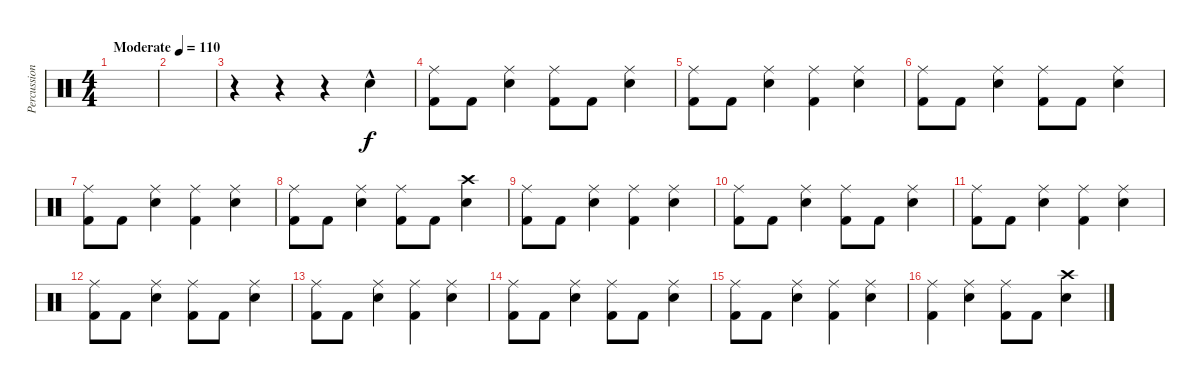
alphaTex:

\track ("Percussion" "Percussion") {instrument percussion}
\staff {score}
\articulation defaults
\ts (4 4)
\tempo (110 "Moderate")
\clef neutral
\ks c
|
|
r.4 r.4 r.4 "Snare (hit) 2"{hac}.4 |
("Ride (middle)" "Kick (hit) 2").8{dy f} "Kick (hit) 2".8 ("Ride (middle)" "Snare (hit) 2").4 ("Ride (middle)" "Kick (hit) 2").8 "Kick (hit) 2".8 ("Ride (middle)" "Snare (hit) 2").4 |
("Ride (middle)" "Kick (hit) 2").8 "Kick (hit) 2".8 ("Ride (middle)" "Snare (hit) 2").4 ("Ride (middle)" "Kick (hit) 2").4 ("Ride (middle)" "Snare (hit) 2").4 |
("Ride (middle)" "Kick (hit) 2").8 "Kick (hit) 2".8 ("Ride (middle)" "Snare (hit) 2").4 ("Ride (middle)" "Kick (hit) 2").8 "Kick (hit) 2".8 ("Ride (middle)" "Snare (hit) 2").4 |
("Ride (middle)" "Kick (hit) 2").8 "Kick (hit) 2".8 ("Ride (middle)" "Snare (hit) 2").4 ("Ride (middle)" "Kick (hit) 2").4 ("Ride (middle)" "Snare (hit) 2").4 |
("Ride (middle)" "Kick (hit) 2").8 "Kick (hit) 2".8 ("Ride (middle)" "Snare (hit) 2").4 ("Ride (middle)" "Kick (hit) 2").8 "Kick (hit) 2".8 ("Crash high (hit)" "Snare (hit) 2").4 |
("Ride (middle)" "Kick (hit) 2").8 "Kick (hit) 2".8 ("Ride (middle)" "Snare (hit) 2").4 ("Ride (middle)" "Kick (hit) 2").4 ("Ride (middle)" "Snare (hit) 2").4 |
("Ride (middle)" "Kick (hit) 2").8 "Kick (hit) 2".8 ("Ride (middle)" "Snare (hit) 2").4 ("Ride (middle)" "Kick (hit) 2").8 "Kick (hit) 2".8 ("Ride (middle)" "Snare (hit) 2").4 |
("Ride (middle)" "Kick (hit) 2").8 "Kick (hit) 2".8 ("Ride (middle)" "Snare (hit) 2").4 ("Ride (middle)" "Kick (hit) 2").4 ("Ride (middle)" "Snare (hit) 2").4 |
("Ride (middle)" "Kick (hit) 2").8 "Kick (hit) 2".8 ("Ride (middle)" "Snare (hit) 2").4 ("Ride (middle)" "Kick (hit) 2").8 "Kick (hit) 2".8 ("Ride (middle)" "Snare (hit) 2").4 |
("Ride (middle)" "Kick (hit) 2").8 "Kick (hit) 2".8 ("Ride (middle)" "Snare (hit) 2").4 ("Ride (middle)" "Kick (hit) 2").4 ("Ride (middle)" "Snare (hit) 2").4 |
("Ride (middle)" "Kick (hit) 2").8 "Kick (hit) 2".8 ("Ride (middle)" "Snare (hit) 2").4 ("Ride (middle)" "Kick (hit) 2").8 "Kick (hit) 2".8 ("Ride (middle)" "Snare (hit) 2").4 |
("Ride (middle)" "Kick (hit) 2").8 "Kick (hit) 2".8 ("Ride (middle)" "Snare (hit) 2").4 ("Ride (middle)" "Kick (hit) 2").4 ("Ride (middle)" "Snare (hit) 2").4 |
("Ride (middle)" "Kick (hit) 2").4 ("Ride (middle)" "Snare (hit) 2").4 ("Ride (middle)" "Kick (hit) 2").8 "Kick (hit) 2".8 ("Crash high (hit)" "Snare (hit) 2").4
